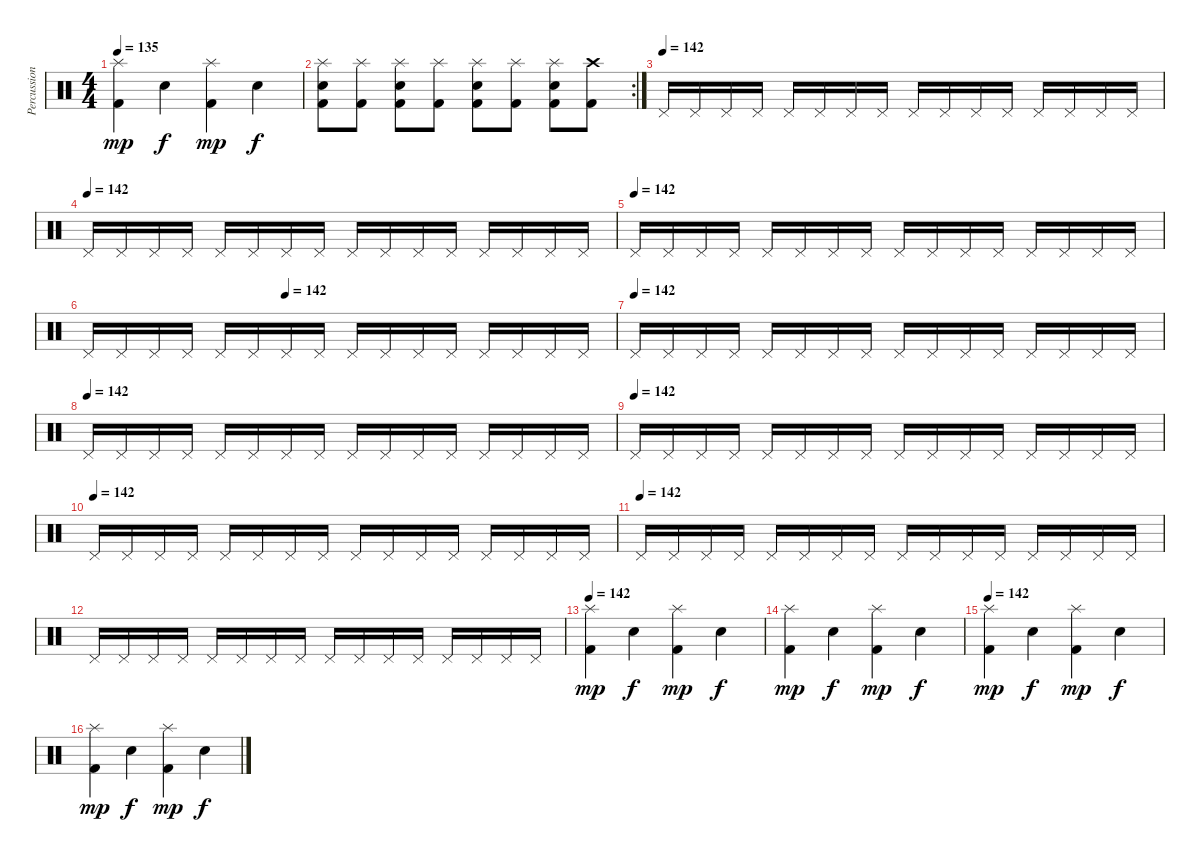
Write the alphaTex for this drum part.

\track ("Percussion" "Percussion") {instrument percussion}
\staff {score}
\articulation defaults
\ts (4 4)
\tempo 135
\clef neutral
\ks c
("Splash (hit)" "Kick (hit) 2").4{dy mp} "Snare (hit) 2".4{dy f} ("Splash (hit)" "Kick (hit) 2").4{dy mp} "Snare (hit) 2".4{dy f} |
\rc 2
("Splash (hit)" "Snare (hit) 2" "Kick (hit) 2").8 ("Splash (hit)" "Kick (hit) 2").8 ("Splash (hit)" "Snare (hit) 2" "Kick (hit) 2").8 ("Splash (hit)" "Kick (hit) 2").8 ("Splash (hit)" "Snare (hit) 2" "Kick (hit) 2").8 ("Splash (hit)" "Kick (hit) 2").8 ("Splash (hit)" "Snare (hit) 2" "Kick (hit) 2").8 ("Crash high (hit)" "Kick (hit) 2").8 |
\tempo (142)
"Pedal Hi-Hat (hit)".16 "Pedal Hi-Hat (hit)".16 "Pedal Hi-Hat (hit)".16 "Pedal Hi-Hat (hit)".16 "Pedal Hi-Hat (hit)".16 "Pedal Hi-Hat (hit)".16 "Pedal Hi-Hat (hit)".16 "Pedal Hi-Hat (hit)".16 "Pedal Hi-Hat (hit)".16 "Pedal Hi-Hat (hit)".16 "Pedal Hi-Hat (hit)".16 "Pedal Hi-Hat (hit)".16 "Pedal Hi-Hat (hit)".16 "Pedal Hi-Hat (hit)".16 "Pedal Hi-Hat (hit)".16 "Pedal Hi-Hat (hit)".16 |
\tempo (142)
"Pedal Hi-Hat (hit)".16 "Pedal Hi-Hat (hit)".16 "Pedal Hi-Hat (hit)".16 "Pedal Hi-Hat (hit)".16 "Pedal Hi-Hat (hit)".16 "Pedal Hi-Hat (hit)".16 "Pedal Hi-Hat (hit)".16 "Pedal Hi-Hat (hit)".16 "Pedal Hi-Hat (hit)".16 "Pedal Hi-Hat (hit)".16 "Pedal Hi-Hat (hit)".16 "Pedal Hi-Hat (hit)".16 "Pedal Hi-Hat (hit)".16 "Pedal Hi-Hat (hit)".16 "Pedal Hi-Hat (hit)".16 "Pedal Hi-Hat (hit)".16 |
\tempo (142)
"Pedal Hi-Hat (hit)".16 "Pedal Hi-Hat (hit)".16 "Pedal Hi-Hat (hit)".16 "Pedal Hi-Hat (hit)".16 "Pedal Hi-Hat (hit)".16 "Pedal Hi-Hat (hit)".16 "Pedal Hi-Hat (hit)".16 "Pedal Hi-Hat (hit)".16 "Pedal Hi-Hat (hit)".16 "Pedal Hi-Hat (hit)".16 "Pedal Hi-Hat (hit)".16 "Pedal Hi-Hat (hit)".16 "Pedal Hi-Hat (hit)".16 "Pedal Hi-Hat (hit)".16 "Pedal Hi-Hat (hit)".16 "Pedal Hi-Hat (hit)".16 |
\tempo (142 0.375)
"Pedal Hi-Hat (hit)".16 "Pedal Hi-Hat (hit)".16 "Pedal Hi-Hat (hit)".16 "Pedal Hi-Hat (hit)".16 "Pedal Hi-Hat (hit)".16 "Pedal Hi-Hat (hit)".16 "Pedal Hi-Hat (hit)".16 "Pedal Hi-Hat (hit)".16 "Pedal Hi-Hat (hit)".16 "Pedal Hi-Hat (hit)".16 "Pedal Hi-Hat (hit)".16 "Pedal Hi-Hat (hit)".16 "Pedal Hi-Hat (hit)".16 "Pedal Hi-Hat (hit)".16 "Pedal Hi-Hat (hit)".16 "Pedal Hi-Hat (hit)".16 |
\tempo (142)
"Pedal Hi-Hat (hit)".16 "Pedal Hi-Hat (hit)".16 "Pedal Hi-Hat (hit)".16 "Pedal Hi-Hat (hit)".16 "Pedal Hi-Hat (hit)".16 "Pedal Hi-Hat (hit)".16 "Pedal Hi-Hat (hit)".16 "Pedal Hi-Hat (hit)".16 "Pedal Hi-Hat (hit)".16 "Pedal Hi-Hat (hit)".16 "Pedal Hi-Hat (hit)".16 "Pedal Hi-Hat (hit)".16 "Pedal Hi-Hat (hit)".16 "Pedal Hi-Hat (hit)".16 "Pedal Hi-Hat (hit)".16 "Pedal Hi-Hat (hit)".16 |
\tempo (142)
"Pedal Hi-Hat (hit)".16 "Pedal Hi-Hat (hit)".16 "Pedal Hi-Hat (hit)".16 "Pedal Hi-Hat (hit)".16 "Pedal Hi-Hat (hit)".16 "Pedal Hi-Hat (hit)".16 "Pedal Hi-Hat (hit)".16 "Pedal Hi-Hat (hit)".16 "Pedal Hi-Hat (hit)".16 "Pedal Hi-Hat (hit)".16 "Pedal Hi-Hat (hit)".16 "Pedal Hi-Hat (hit)".16 "Pedal Hi-Hat (hit)".16 "Pedal Hi-Hat (hit)".16 "Pedal Hi-Hat (hit)".16 "Pedal Hi-Hat (hit)".16 |
\tempo (142)
"Pedal Hi-Hat (hit)".16 "Pedal Hi-Hat (hit)".16 "Pedal Hi-Hat (hit)".16 "Pedal Hi-Hat (hit)".16 "Pedal Hi-Hat (hit)".16 "Pedal Hi-Hat (hit)".16 "Pedal Hi-Hat (hit)".16 "Pedal Hi-Hat (hit)".16 "Pedal Hi-Hat (hit)".16 "Pedal Hi-Hat (hit)".16 "Pedal Hi-Hat (hit)".16 "Pedal Hi-Hat (hit)".16 "Pedal Hi-Hat (hit)".16 "Pedal Hi-Hat (hit)".16 "Pedal Hi-Hat (hit)".16 "Pedal Hi-Hat (hit)".16 |
\tempo (142)
"Pedal Hi-Hat (hit)".16 "Pedal Hi-Hat (hit)".16 "Pedal Hi-Hat (hit)".16 "Pedal Hi-Hat (hit)".16 "Pedal Hi-Hat (hit)".16 "Pedal Hi-Hat (hit)".16 "Pedal Hi-Hat (hit)".16 "Pedal Hi-Hat (hit)".16 "Pedal Hi-Hat (hit)".16 "Pedal Hi-Hat (hit)".16 "Pedal Hi-Hat (hit)".16 "Pedal Hi-Hat (hit)".16 "Pedal Hi-Hat (hit)".16 "Pedal Hi-Hat (hit)".16 "Pedal Hi-Hat (hit)".16 "Pedal Hi-Hat (hit)".16 |
\tempo (142)
"Pedal Hi-Hat (hit)".16 "Pedal Hi-Hat (hit)".16 "Pedal Hi-Hat (hit)".16 "Pedal Hi-Hat (hit)".16 "Pedal Hi-Hat (hit)".16 "Pedal Hi-Hat (hit)".16 "Pedal Hi-Hat (hit)".16 "Pedal Hi-Hat (hit)".16 "Pedal Hi-Hat (hit)".16 "Pedal Hi-Hat (hit)".16 "Pedal Hi-Hat (hit)".16 "Pedal Hi-Hat (hit)".16 "Pedal Hi-Hat (hit)".16 "Pedal Hi-Hat (hit)".16 "Pedal Hi-Hat (hit)".16 "Pedal Hi-Hat (hit)".16 |
"Pedal Hi-Hat (hit)".16 "Pedal Hi-Hat (hit)".16 "Pedal Hi-Hat (hit)".16 "Pedal Hi-Hat (hit)".16 "Pedal Hi-Hat (hit)".16 "Pedal Hi-Hat (hit)".16 "Pedal Hi-Hat (hit)".16 "Pedal Hi-Hat (hit)".16 "Pedal Hi-Hat (hit)".16 "Pedal Hi-Hat (hit)".16 "Pedal Hi-Hat (hit)".16 "Pedal Hi-Hat (hit)".16 "Pedal Hi-Hat (hit)".16 "Pedal Hi-Hat (hit)".16 "Pedal Hi-Hat (hit)".16 "Pedal Hi-Hat (hit)".16 |
\tempo 142
("Splash (hit)" "Kick (hit) 2").4{dy mp} "Snare (hit) 2".4{dy f} ("Splash (hit)" "Kick (hit) 2").4{dy mp} "Snare (hit) 2".4{dy f} |
("Splash (hit)" "Kick (hit) 2").4{dy mp} "Snare (hit) 2".4{dy f} ("Splash (hit)" "Kick (hit) 2").4{dy mp} "Snare (hit) 2".4{dy f} |
\tempo 142
("Splash (hit)" "Kick (hit) 2").4{dy mp} "Snare (hit) 2".4{dy f} ("Splash (hit)" "Kick (hit) 2").4{dy mp} "Snare (hit) 2".4{dy f} |
("Splash (hit)" "Kick (hit) 2").4{dy mp} "Snare (hit) 2".4{dy f} ("Splash (hit)" "Kick (hit) 2").4{dy mp} "Snare (hit) 2".4{dy f}
